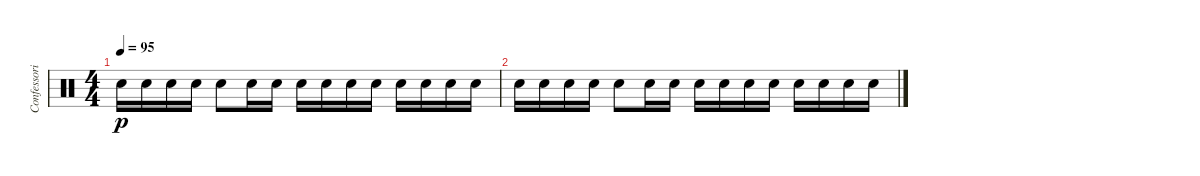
\track ("Confessori" "Confessori") {instrument percussion}
\staff {score}
\articulation defaults
\ts (4 4)
\tempo 95
\clef neutral
\ks c "Electric Snare (hit)".16{dy p} "Electric Snare (hit)".16 "Electric Snare (hit)".16 "Electric Snare (hit)".16 "Electric Snare (hit)".8 "Electric Snare (hit)".16 "Electric Snare (hit)".16 "Electric Snare (hit)".16 "Electric Snare (hit)".16 "Electric Snare (hit)".16 "Electric Snare (hit)".16 "Electric Snare (hit)".16 "Electric Snare (hit)".16 "Electric Snare (hit)".16 "Electric Snare (hit)".16
|
"Electric Snare (hit)".16 "Electric Snare (hit)".16 "Electric Snare (hit)".16 "Electric Snare (hit)".16 "Electric Snare (hit)".8 "Electric Snare (hit)".16 "Electric Snare (hit)".16 "Electric Snare (hit)".16 "Electric Snare (hit)".16 "Electric Snare (hit)".16 "Electric Snare (hit)".16 "Electric Snare (hit)".16 "Electric Snare (hit)".16 "Electric Snare (hit)".16 "Electric Snare (hit)".16
